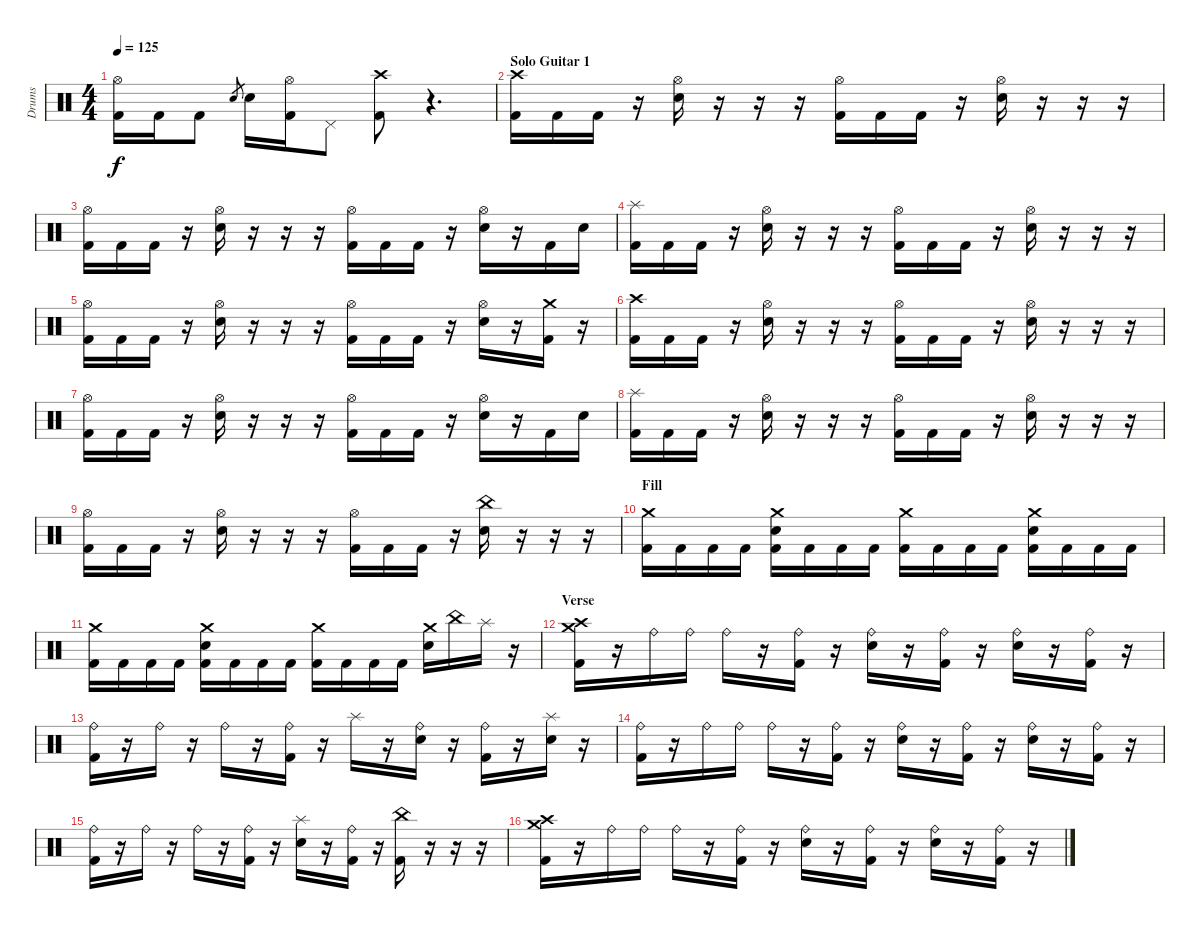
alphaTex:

\track ("Drums" "Drums") {instrument percussion}
\staff {score}
\articulation defaults
\ts (4 4)
\tempo 125
\clef neutral
\ks c
("Hi-Hat (open)" "Kick (hit) 2").16{dy f} "Kick (hit) 2".16 "Kick (hit) 2".8 "Electric Snare (hit)".8{gr} "Electric Snare (hit)".16 ("Hi-Hat (open)" "Kick (hit) 2").16 "Pedal Hi-Hat (hit)".8 ("Crash high (hit)" "Kick (hit) 2").8 r.4{d volume 0} |
\section ("" "Solo Guitar 1")
("Crash high (hit)" "Kick (hit) 2").16{volume 14} "Kick (hit) 2".16 "Kick (hit) 2".16 r.16 ("Hi-Hat (open)" "Electric Snare (hit)").16 r.16 r.16 r.16 ("Hi-Hat (open)" "Kick (hit) 2").16 "Kick (hit) 2".16 "Kick (hit) 2".16 r.16 ("Hi-Hat (open)" "Electric Snare (hit)").16 r.16 r.16 r.16 |
("Hi-Hat (open)" "Kick (hit) 2").16 "Kick (hit) 2".16 "Kick (hit) 2".16 r.16 ("Hi-Hat (open)" "Electric Snare (hit)").16 r.16 r.16 r.16 ("Hi-Hat (open)" "Kick (hit) 2").16 "Kick (hit) 2".16 "Kick (hit) 2".16 r.16 ("Hi-Hat (open)" "Electric Snare (hit)").16 r.16 "Kick (hit) 2".16 "Electric Snare (hit)".16 |
("Splash (hit)" "Kick (hit) 2").16 "Kick (hit) 2".16 "Kick (hit) 2".16 r.16 ("Hi-Hat (open)" "Electric Snare (hit)").16 r.16 r.16 r.16 ("Hi-Hat (open)" "Kick (hit) 2").16 "Kick (hit) 2".16 "Kick (hit) 2".16 r.16 ("Hi-Hat (open)" "Electric Snare (hit)").16 r.16 r.16 r.16 |
("Hi-Hat (open)" "Kick (hit) 2").16 "Kick (hit) 2".16 "Kick (hit) 2".16 r.16 ("Hi-Hat (open)" "Electric Snare (hit)").16 r.16 r.16 r.16 ("Hi-Hat (open)" "Kick (hit) 2").16 "Kick (hit) 2".16 "Kick (hit) 2".16 r.16 ("Hi-Hat (open)" "Electric Snare (hit)").16 r.16 ("Crash medium (hit)" "Kick (hit) 2").16 r.16 |
("Crash high (hit)" "Kick (hit) 2").16 "Kick (hit) 2".16 "Kick (hit) 2".16 r.16 ("Hi-Hat (open)" "Electric Snare (hit)").16 r.16 r.16 r.16 ("Hi-Hat (open)" "Kick (hit) 2").16 "Kick (hit) 2".16 "Kick (hit) 2".16 r.16 ("Hi-Hat (open)" "Electric Snare (hit)").16 r.16 r.16 r.16 |
("Hi-Hat (open)" "Kick (hit) 2").16 "Kick (hit) 2".16 "Kick (hit) 2".16 r.16 ("Hi-Hat (open)" "Electric Snare (hit)").16 r.16 r.16 r.16 ("Hi-Hat (open)" "Kick (hit) 2").16 "Kick (hit) 2".16 "Kick (hit) 2".16 r.16 ("Hi-Hat (open)" "Electric Snare (hit)").16 r.16 "Kick (hit) 2".16 "Electric Snare (hit)".16 |
("Splash (hit)" "Kick (hit) 2").16 "Kick (hit) 2".16 "Kick (hit) 2".16 r.16 ("Hi-Hat (open)" "Electric Snare (hit)").16 r.16 r.16 r.16 ("Hi-Hat (open)" "Kick (hit) 2").16 "Kick (hit) 2".16 "Kick (hit) 2".16 r.16 ("Hi-Hat (open)" "Electric Snare (hit)").16 r.16 r.16 r.16 |
("Hi-Hat (open)" "Kick (hit) 2").16 "Kick (hit) 2".16 "Kick (hit) 2".16 r.16 ("Hi-Hat (open)" "Electric Snare (hit)").16 r.16 r.16 r.16 ("Hi-Hat (open)" "Kick (hit) 2").16 "Kick (hit) 2".16 "Kick (hit) 2".16 r.16 ("China (hit)" "Electric Snare (hit)").16 r.16 r.16 r.16 |
\section ("" "Fill")
("Crash medium (hit)" "Kick (hit) 2").16 "Kick (hit) 2".16 "Kick (hit) 2".16 "Kick (hit) 2".16 ("Crash medium (hit)" "Electric Snare (hit)" "Kick (hit) 2").16 "Kick (hit) 2".16 "Kick (hit) 2".16 "Kick (hit) 2".16 ("Crash medium (hit)" "Kick (hit) 2").16 "Kick (hit) 2".16 "Kick (hit) 2".16 "Kick (hit) 2".16 ("Crash medium (hit)" "Electric Snare (hit)" "Kick (hit) 2").16 "Kick (hit) 2".16 "Kick (hit) 2".16 "Kick (hit) 2".16 |
("Crash medium (hit)" "Kick (hit) 2").16 "Kick (hit) 2".16 "Kick (hit) 2".16 "Kick (hit) 2".16 ("Crash medium (hit)" "Electric Snare (hit)" "Kick (hit) 2").16 "Kick (hit) 2".16 "Kick (hit) 2".16 "Kick (hit) 2".16 ("Crash medium (hit)" "Kick (hit) 2").16 "Kick (hit) 2".16 "Kick (hit) 2".16 "Kick (hit) 2".16 ("Crash medium (hit)" "Electric Snare (hit)").16 "China (hit)".16 "Splash (hit)".16 r.16 |
\section ("" "Verse")
("Crash medium (hit)" "Crash high (hit)" "Kick (hit) 2").16 r.16 "Ride (bell)".16 "Ride (bell)".16 "Ride (bell)".16 r.16 ("Ride (bell)" "Kick (hit) 2").16 r.16 ("Ride (bell)" "Electric Snare (hit)").16 r.16 ("Ride (bell)" "Kick (hit) 2").16 r.16 ("Ride (bell)" "Electric Snare (hit)").16 r.16 ("Ride (bell)" "Kick (hit) 2").16 r.16 |
("Ride (bell)" "Kick (hit) 2").16 r.16 "Ride (bell)".16 r.16 "Ride (bell)".16 r.16 ("Ride (bell)" "Kick (hit) 2").16 r.16 "Splash (hit)".16 r.16 ("Ride (bell)" "Electric Snare (hit)").16 r.16 ("Ride (bell)" "Kick (hit) 2").16 r.16 ("Splash (hit)" "Electric Snare (hit)").16 r.16 |
("Ride (bell)" "Kick (hit) 2").16 r.16 "Ride (bell)".16 "Ride (bell)".16 "Ride (bell)".16 r.16 ("Ride (bell)" "Kick (hit) 2").16 r.16 ("Ride (bell)" "Electric Snare (hit)").16 r.16 ("Ride (bell)" "Kick (hit) 2").16 r.16 ("Ride (bell)" "Electric Snare (hit)").16 r.16 ("Ride (bell)" "Kick (hit) 2").16 r.16 |
("Ride (bell)" "Kick (hit) 2").16 r.16 "Ride (bell)".16 r.16 "Ride (bell)".16 r.16 ("Ride (bell)" "Kick (hit) 2").16 r.16 ("Splash (hit)" "Electric Snare (hit)").16 r.16 ("Ride (bell)" "Kick (hit) 2").16 r.16 ("China (hit)" "Kick (hit) 2").16 r.16 r.16 r.16 |
("Crash medium (hit)" "Crash high (hit)" "Kick (hit) 2").16 r.16 "Ride (bell)".16 "Ride (bell)".16 "Ride (bell)".16 r.16 ("Ride (bell)" "Kick (hit) 2").16 r.16 ("Ride (bell)" "Electric Snare (hit)").16 r.16 ("Ride (bell)" "Kick (hit) 2").16 r.16 ("Ride (bell)" "Electric Snare (hit)").16 r.16 ("Ride (bell)" "Kick (hit) 2").16 r.16
